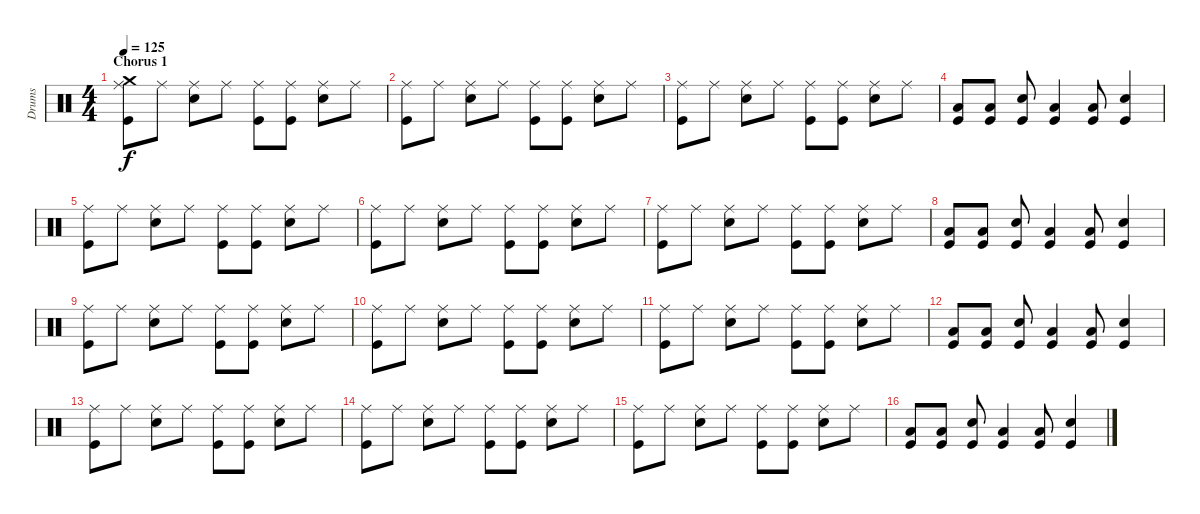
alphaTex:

\track ("Drums" "Drums") {instrument percussion}
\staff {score}
\articulation defaults
\ts (4 4)
\section ("" "Chorus 1")
\tempo 125
\clef neutral
\ks c
("Crash medium (hit)" "Ride (middle)" "Kick (hit)").8{dy f} "Ride (middle)".8 ("Ride (middle)" "Electric Snare (hit)").8 "Ride (middle)".8 ("Ride (middle)" "Kick (hit)").8 ("Ride (middle)" "Kick (hit)").8 ("Ride (middle)" "Electric Snare (hit)").8 "Ride (middle)".8 |
("Ride (middle)" "Kick (hit)").8 "Ride (middle)".8 ("Ride (middle)" "Electric Snare (hit)").8 "Ride (middle)".8 ("Ride (middle)" "Kick (hit)").8 ("Ride (middle)" "Kick (hit)").8 ("Ride (middle)" "Electric Snare (hit)").8 "Ride (middle)".8 |
("Ride (middle)" "Kick (hit)").8 "Ride (middle)".8 ("Ride (middle)" "Electric Snare (hit)").8 "Ride (middle)".8 ("Ride (middle)" "Kick (hit)").8 ("Ride (middle)" "Kick (hit)").8 ("Ride (middle)" "Electric Snare (hit)").8 "Ride (middle)".8 |
("Low Floor Tom (hit)" "Kick (hit)").8 ("Low Floor Tom (hit)" "Kick (hit)").8 ("Electric Snare (hit)" "Kick (hit)").8 ("Low Floor Tom (hit)" "Kick (hit)").4 ("Low Floor Tom (hit)" "Kick (hit)").8 ("Electric Snare (hit)" "Kick (hit)").4 |
("Ride (middle)" "Kick (hit)").8 "Ride (middle)".8 ("Ride (middle)" "Electric Snare (hit)").8 "Ride (middle)".8 ("Ride (middle)" "Kick (hit)").8 ("Ride (middle)" "Kick (hit)").8 ("Ride (middle)" "Electric Snare (hit)").8 "Ride (middle)".8 |
("Ride (middle)" "Kick (hit)").8 "Ride (middle)".8 ("Ride (middle)" "Electric Snare (hit)").8 "Ride (middle)".8 ("Ride (middle)" "Kick (hit)").8 ("Ride (middle)" "Kick (hit)").8 ("Ride (middle)" "Electric Snare (hit)").8 "Ride (middle)".8 |
("Ride (middle)" "Kick (hit)").8 "Ride (middle)".8 ("Ride (middle)" "Electric Snare (hit)").8 "Ride (middle)".8 ("Ride (middle)" "Kick (hit)").8 ("Ride (middle)" "Kick (hit)").8 ("Ride (middle)" "Electric Snare (hit)").8 "Ride (middle)".8 |
("Low Floor Tom (hit)" "Kick (hit)").8 ("Low Floor Tom (hit)" "Kick (hit)").8 ("Electric Snare (hit)" "Kick (hit)").8 ("Low Floor Tom (hit)" "Kick (hit)").4 ("Low Floor Tom (hit)" "Kick (hit)").8 ("Electric Snare (hit)" "Kick (hit)").4 |
("Ride (middle)" "Kick (hit)").8 "Ride (middle)".8 ("Ride (middle)" "Electric Snare (hit)").8 "Ride (middle)".8 ("Ride (middle)" "Kick (hit)").8 ("Ride (middle)" "Kick (hit)").8 ("Ride (middle)" "Electric Snare (hit)").8 "Ride (middle)".8 |
("Ride (middle)" "Kick (hit)").8 "Ride (middle)".8 ("Ride (middle)" "Electric Snare (hit)").8 "Ride (middle)".8 ("Ride (middle)" "Kick (hit)").8 ("Ride (middle)" "Kick (hit)").8 ("Ride (middle)" "Electric Snare (hit)").8 "Ride (middle)".8 |
("Ride (middle)" "Kick (hit)").8 "Ride (middle)".8 ("Ride (middle)" "Electric Snare (hit)").8 "Ride (middle)".8 ("Ride (middle)" "Kick (hit)").8 ("Ride (middle)" "Kick (hit)").8 ("Ride (middle)" "Electric Snare (hit)").8 "Ride (middle)".8 |
("Low Floor Tom (hit)" "Kick (hit)").8 ("Low Floor Tom (hit)" "Kick (hit)").8 ("Electric Snare (hit)" "Kick (hit)").8 ("Low Floor Tom (hit)" "Kick (hit)").4 ("Low Floor Tom (hit)" "Kick (hit)").8 ("Electric Snare (hit)" "Kick (hit)").4 |
("Ride (middle)" "Kick (hit)").8 "Ride (middle)".8 ("Ride (middle)" "Electric Snare (hit)").8 "Ride (middle)".8 ("Ride (middle)" "Kick (hit)").8 ("Ride (middle)" "Kick (hit)").8 ("Ride (middle)" "Electric Snare (hit)").8 "Ride (middle)".8 |
("Ride (middle)" "Kick (hit)").8 "Ride (middle)".8 ("Ride (middle)" "Electric Snare (hit)").8 "Ride (middle)".8 ("Ride (middle)" "Kick (hit)").8 ("Ride (middle)" "Kick (hit)").8 ("Ride (middle)" "Electric Snare (hit)").8 "Ride (middle)".8 |
("Ride (middle)" "Kick (hit)").8 "Ride (middle)".8 ("Ride (middle)" "Electric Snare (hit)").8 "Ride (middle)".8 ("Ride (middle)" "Kick (hit)").8 ("Ride (middle)" "Kick (hit)").8 ("Ride (middle)" "Electric Snare (hit)").8 "Ride (middle)".8 |
("Low Floor Tom (hit)" "Kick (hit)").8 ("Low Floor Tom (hit)" "Kick (hit)").8 ("Electric Snare (hit)" "Kick (hit)").8 ("Low Floor Tom (hit)" "Kick (hit)").4 ("Low Floor Tom (hit)" "Kick (hit)").8 ("Electric Snare (hit)" "Kick (hit)").4
